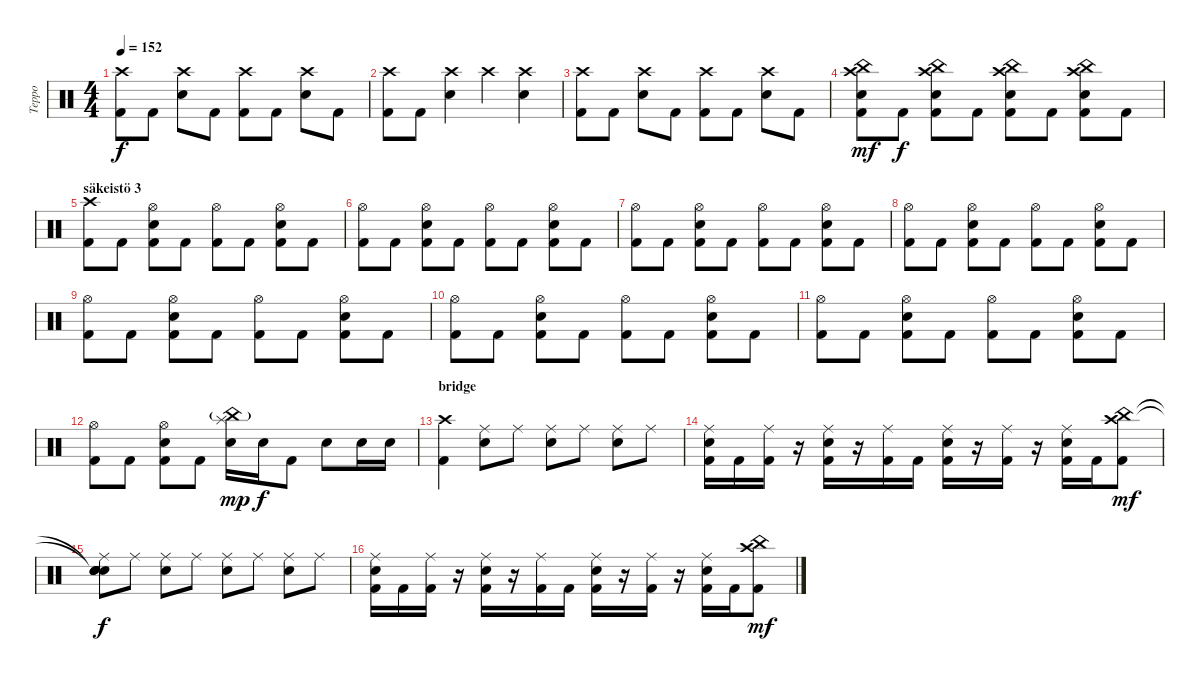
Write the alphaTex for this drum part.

\track ("Teppo" "Teppo") {instrument percussion}
\staff {score}
\articulation defaults
\ts (4 4)
\tempo 152
\clef neutral
\ks c
("Crash high (hit)" "Kick (hit) 2").8{dy f} "Kick (hit) 2".8 ("Crash high (hit)" "Electric Snare (hit)").8 "Kick (hit) 2".8 ("Crash high (hit)" "Kick (hit) 2").8 "Kick (hit) 2".8 ("Crash high (hit)" "Electric Snare (hit)").8 "Kick (hit) 2".8 |
("Crash high (hit)" "Kick (hit) 2").8 "Kick (hit) 2".8 ("Crash high (hit)" "Electric Snare (hit)").4 "Crash high (hit)".4 ("Crash high (hit)" "Electric Snare (hit)").4 |
("Crash high (hit)" "Kick (hit) 2").8 "Kick (hit) 2".8 ("Crash high (hit)" "Electric Snare (hit)").8 "Kick (hit) 2".8 ("Crash high (hit)" "Kick (hit) 2").8 "Kick (hit) 2".8 ("Crash high (hit)" "Electric Snare (hit)").8 "Kick (hit) 2".8 |
("China (hit)" "Crash high (hit)" "Electric Snare (hit)" "Kick (hit) 2").8{dy mf} "Kick (hit) 2".8{dy f} ("China (hit)" "Crash high (hit)" "Electric Snare (hit)" "Kick (hit) 2").8 "Kick (hit) 2".8 ("China (hit)" "Crash high (hit)" "Electric Snare (hit)" "Kick (hit) 2").8 "Kick (hit) 2".8 ("China (hit)" "Crash high (hit)" "Electric Snare (hit)" "Kick (hit) 2").8 "Kick (hit) 2".8 |
\section ("" "säkeistö 3")
("Crash high (hit)" "Kick (hit) 2").8 "Kick (hit) 2".8 ("Hi-Hat (open)" "Electric Snare (hit)" "Kick (hit) 2").8 "Kick (hit) 2".8 ("Hi-Hat (open)" "Kick (hit) 2").8 "Kick (hit) 2".8 ("Hi-Hat (open)" "Electric Snare (hit)" "Kick (hit) 2").8 "Kick (hit) 2".8 |
("Hi-Hat (open)" "Kick (hit) 2").8 "Kick (hit) 2".8 ("Hi-Hat (open)" "Electric Snare (hit)" "Kick (hit) 2").8 "Kick (hit) 2".8 ("Hi-Hat (open)" "Kick (hit) 2").8 "Kick (hit) 2".8 ("Hi-Hat (open)" "Electric Snare (hit)" "Kick (hit) 2").8 "Kick (hit) 2".8 |
("Hi-Hat (open)" "Kick (hit) 2").8 "Kick (hit) 2".8 ("Hi-Hat (open)" "Electric Snare (hit)" "Kick (hit) 2").8 "Kick (hit) 2".8 ("Hi-Hat (open)" "Kick (hit) 2").8 "Kick (hit) 2".8 ("Hi-Hat (open)" "Electric Snare (hit)" "Kick (hit) 2").8 "Kick (hit) 2".8 |
("Hi-Hat (open)" "Kick (hit) 2").8 "Kick (hit) 2".8 ("Hi-Hat (open)" "Electric Snare (hit)" "Kick (hit) 2").8 "Kick (hit) 2".8 ("Hi-Hat (open)" "Kick (hit) 2").8 "Kick (hit) 2".8 ("Hi-Hat (open)" "Electric Snare (hit)" "Kick (hit) 2").8 "Kick (hit) 2".8 |
("Hi-Hat (open)" "Kick (hit) 2").8 "Kick (hit) 2".8 ("Hi-Hat (open)" "Electric Snare (hit)" "Kick (hit) 2").8 "Kick (hit) 2".8 ("Hi-Hat (open)" "Kick (hit) 2").8 "Kick (hit) 2".8 ("Hi-Hat (open)" "Electric Snare (hit)" "Kick (hit) 2").8 "Kick (hit) 2".8 |
("Hi-Hat (open)" "Kick (hit) 2").8 "Kick (hit) 2".8 ("Hi-Hat (open)" "Electric Snare (hit)" "Kick (hit) 2").8 "Kick (hit) 2".8 ("Hi-Hat (open)" "Kick (hit) 2").8 "Kick (hit) 2".8 ("Hi-Hat (open)" "Electric Snare (hit)" "Kick (hit) 2").8 "Kick (hit) 2".8 |
("Hi-Hat (open)" "Kick (hit) 2").8 "Kick (hit) 2".8 ("Hi-Hat (open)" "Electric Snare (hit)" "Kick (hit) 2").8 "Kick (hit) 2".8 ("Hi-Hat (open)" "Kick (hit) 2").8 "Kick (hit) 2".8 ("Hi-Hat (open)" "Electric Snare (hit)" "Kick (hit) 2").8 "Kick (hit) 2".8 |
("Hi-Hat (open)" "Kick (hit) 2").8 "Kick (hit) 2".8 ("Hi-Hat (open)" "Electric Snare (hit)" "Kick (hit) 2").8 "Kick (hit) 2".8 ("Splash (hit)" "China (hit)"{g} "Electric Snare (hit)").16{dy mp} "Electric Snare (hit)".16{dy f} "Kick (hit) 2".8 "Electric Snare (hit)".8 "Electric Snare (hit)".16 "Electric Snare (hit)".16 |
\section ("" "bridge")
("Crash high (hit)" "Kick (hit) 2").4 ("Ride (middle)" "Electric Snare (hit)").8 "Ride (middle)".8 ("Ride (middle)" "Electric Snare (hit)").8 "Ride (middle)".8 ("Ride (middle)" "Electric Snare (hit)").8 "Ride (middle)".8 |
("Ride (middle)" "Electric Snare (hit)" "Kick (hit) 2").16 "Kick (hit) 2".16 ("Ride (middle)" "Kick (hit) 2").16 r.16 ("Ride (middle)" "Electric Snare (hit)" "Kick (hit) 2").16 r.16 ("Ride (middle)" "Kick (hit) 2").16 "Kick (hit) 2".16 ("Ride (middle)" "Electric Snare (hit)" "Kick (hit) 2").16 r.16 ("Ride (middle)" "Kick (hit) 2").16 r.16 ("Ride (middle)" "Electric Snare (hit)" "Kick (hit) 2").16 "Kick (hit) 2".16 ("China (hit)" "Crash high (hit)" "Kick (hit) 2").8{dy mf} |
("Snare (hit)"{t} "Snare (hit)"{t} "Ride (middle)" "Electric Snare (hit)" "Snare (hit)").8{dy f} "Ride (middle)".8 ("Ride (middle)" "Electric Snare (hit)").8 "Ride (middle)".8 ("Ride (middle)" "Electric Snare (hit)").8 "Ride (middle)".8 ("Ride (middle)" "Electric Snare (hit)").8 "Ride (middle)".8 |
("Ride (middle)" "Electric Snare (hit)" "Kick (hit) 2").16 "Kick (hit) 2".16 ("Ride (middle)" "Kick (hit) 2").16 r.16 ("Ride (middle)" "Electric Snare (hit)" "Kick (hit) 2").16 r.16 ("Ride (middle)" "Kick (hit) 2").16 "Kick (hit) 2".16 ("Ride (middle)" "Electric Snare (hit)" "Kick (hit) 2").16 r.16 ("Ride (middle)" "Kick (hit) 2").16 r.16 ("Ride (middle)" "Electric Snare (hit)" "Kick (hit) 2").16 "Kick (hit) 2".16 ("China (hit)" "Crash high (hit)" "Kick (hit) 2").8{dy mf}
